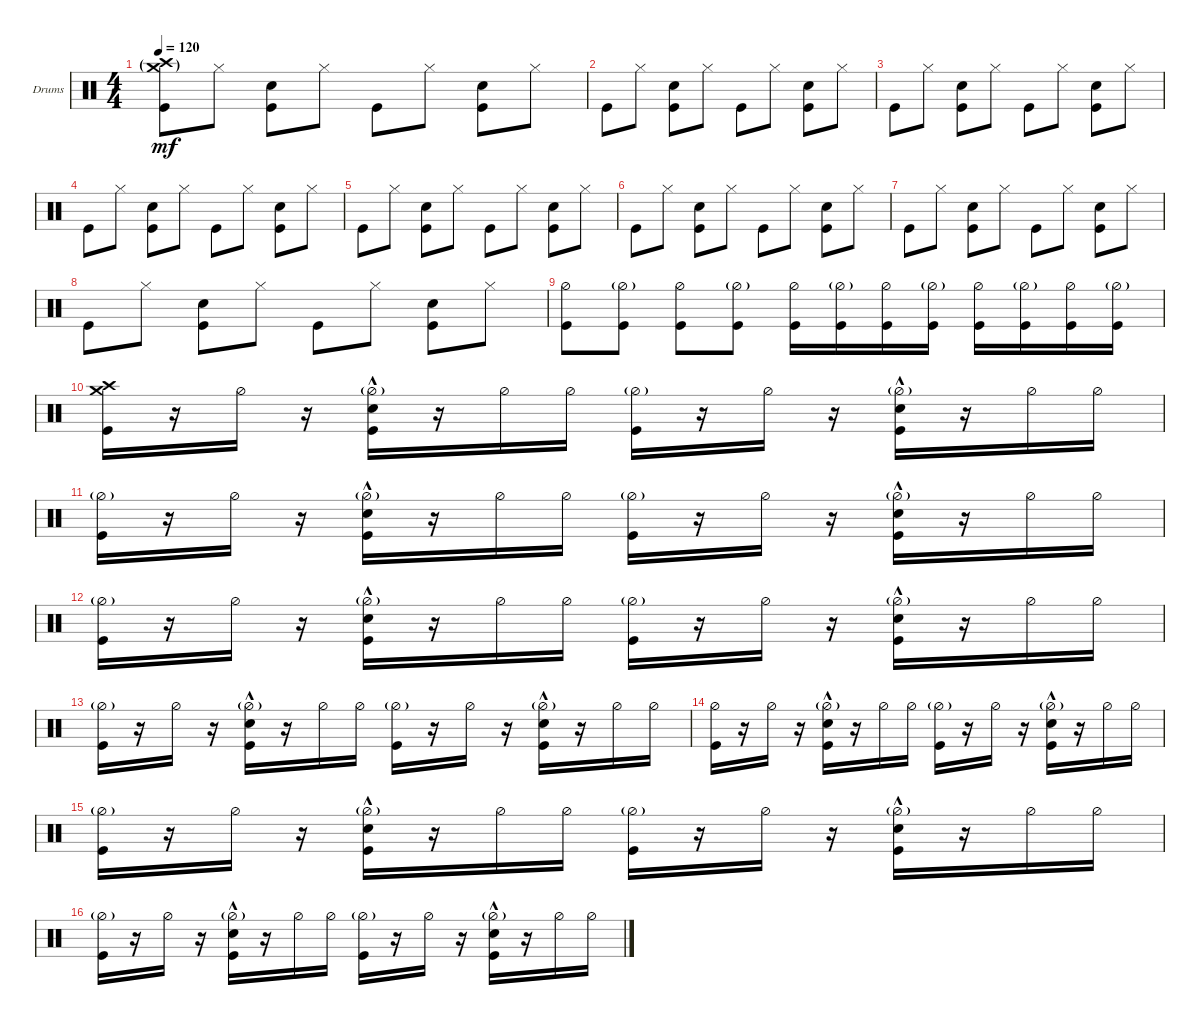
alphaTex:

\defaultSystemsLayout 4
\bracketExtendMode groupsimilarinstruments
\firstSystemTrackNameOrientation horizontal
\otherSystemsTrackNameOrientation horizontal
\track ("Drumkit" "Drums") {instrument percussion}
\staff {score}
\articulation defaults
\ts (4 4)
\tempo 120
\clef neutral
\ks c
("Kick (hit)" "Crash high (hit)"{g} "Crash medium (hit)"{g}).8{dy mf} "Hi-Hat (closed)".8 ("Kick (hit)" "Snare (hit) 2").8 "Hi-Hat (closed)".8 "Kick (hit)".8 "Hi-Hat (closed)".8 ("Kick (hit)" "Snare (hit) 2").8 "Hi-Hat (closed)".8 |
"Kick (hit)".8 "Hi-Hat (closed)".8 ("Kick (hit)" "Snare (hit) 2").8 "Hi-Hat (closed)".8 "Kick (hit)".8 "Hi-Hat (closed)".8 ("Kick (hit)" "Snare (hit) 2").8 "Hi-Hat (closed)".8 |
"Kick (hit)".8 "Hi-Hat (closed)".8 ("Kick (hit)" "Snare (hit) 2").8 "Hi-Hat (closed)".8 "Kick (hit)".8 "Hi-Hat (closed)".8 ("Kick (hit)" "Snare (hit) 2").8 "Hi-Hat (closed)".8 |
"Kick (hit)".8 "Hi-Hat (closed)".8 ("Kick (hit)" "Snare (hit) 2").8 "Hi-Hat (closed)".8 "Kick (hit)".8 "Hi-Hat (closed)".8 ("Kick (hit)" "Snare (hit) 2").8 "Hi-Hat (closed)".8 |
"Kick (hit)".8 "Hi-Hat (closed)".8 ("Kick (hit)" "Snare (hit) 2").8 "Hi-Hat (closed)".8 "Kick (hit)".8 "Hi-Hat (closed)".8 ("Kick (hit)" "Snare (hit) 2").8 "Hi-Hat (closed)".8 |
"Kick (hit)".8 "Hi-Hat (closed)".8 ("Kick (hit)" "Snare (hit) 2").8 "Hi-Hat (closed)".8 "Kick (hit)".8 "Hi-Hat (closed)".8 ("Kick (hit)" "Snare (hit) 2").8 "Hi-Hat (closed)".8 |
"Kick (hit)".8 "Hi-Hat (closed)".8 ("Kick (hit)" "Snare (hit) 2").8 "Hi-Hat (closed)".8 "Kick (hit)".8 "Hi-Hat (closed)".8 ("Kick (hit)" "Snare (hit) 2").8 "Hi-Hat (closed)".8 |
"Kick (hit)".8 "Hi-Hat (closed)".8 ("Kick (hit)" "Snare (hit) 2").8 "Hi-Hat (closed)".8 "Kick (hit)".8 "Hi-Hat (closed)".8 ("Kick (hit)" "Snare (hit) 2").8 "Hi-Hat (closed)".8 |
("Hi-Hat (half)" "Kick (hit)").8 ("Hi-Hat (half)"{g} "Kick (hit)").8 ("Hi-Hat (half)" "Kick (hit)").8 ("Hi-Hat (half)"{g} "Kick (hit)").8 ("Hi-Hat (half)" "Kick (hit)").16 ("Hi-Hat (half)"{g} "Kick (hit)").16 ("Hi-Hat (half)" "Kick (hit)").16 ("Hi-Hat (half)"{g} "Kick (hit)").16 ("Hi-Hat (half)" "Kick (hit)").16 ("Hi-Hat (half)"{g} "Kick (hit)").16 ("Hi-Hat (half)" "Kick (hit)").16 ("Hi-Hat (half)"{g} "Kick (hit)").16 |
("Crash medium (hit)" "Crash high (hit)" "Kick (hit)").16 r.16 "Hi-Hat (half)".16 r.16 ("Kick (hit)" "Snare (hit) 2"{hac} "Hi-Hat (half)"{g}).16 r.16 "Hi-Hat (half)".16 "Hi-Hat (half)".16 ("Kick (hit)" "Hi-Hat (half)"{g}).16 r.16 "Hi-Hat (half)".16 r.16 ("Kick (hit)" "Snare (hit) 2"{hac} "Hi-Hat (half)"{g}).16 r.16 "Hi-Hat (half)".16 "Hi-Hat (half)".16 |
("Kick (hit)" "Hi-Hat (half)"{g}).16 r.16 "Hi-Hat (half)".16 r.16 ("Kick (hit)" "Snare (hit) 2"{hac} "Hi-Hat (half)"{g}).16 r.16 "Hi-Hat (half)".16 "Hi-Hat (half)".16 ("Kick (hit)" "Hi-Hat (half)"{g}).16 r.16 "Hi-Hat (half)".16 r.16 ("Kick (hit)" "Snare (hit) 2"{hac} "Hi-Hat (half)"{g}).16 r.16 "Hi-Hat (half)".16 "Hi-Hat (half)".16 |
("Kick (hit)" "Hi-Hat (half)"{g}).16 r.16 "Hi-Hat (half)".16 r.16 ("Kick (hit)" "Snare (hit) 2"{hac} "Hi-Hat (half)"{g}).16 r.16 "Hi-Hat (half)".16 "Hi-Hat (half)".16 ("Kick (hit)" "Hi-Hat (half)"{g}).16 r.16 "Hi-Hat (half)".16 r.16 ("Kick (hit)" "Snare (hit) 2"{hac} "Hi-Hat (half)"{g}).16 r.16 "Hi-Hat (half)".16 "Hi-Hat (half)".16 |
("Kick (hit)" "Hi-Hat (half)"{g}).16 r.16 "Hi-Hat (half)".16 r.16 ("Kick (hit)" "Snare (hit) 2"{hac} "Hi-Hat (half)"{g}).16 r.16 "Hi-Hat (half)".16 "Hi-Hat (half)".16 ("Kick (hit)" "Hi-Hat (half)"{g}).16 r.16 "Hi-Hat (half)".16 r.16 ("Kick (hit)" "Snare (hit) 2"{hac} "Hi-Hat (half)"{g}).16 r.16 "Hi-Hat (half)".16 "Hi-Hat (half)".16 |
("Kick (hit)" "Hi-Hat (half)").16 r.16 "Hi-Hat (half)".16 r.16 ("Kick (hit)" "Snare (hit) 2"{hac} "Hi-Hat (half)"{g}).16 r.16 "Hi-Hat (half)".16 "Hi-Hat (half)".16 ("Kick (hit)" "Hi-Hat (half)"{g}).16 r.16 "Hi-Hat (half)".16 r.16 ("Kick (hit)" "Snare (hit) 2"{hac} "Hi-Hat (half)"{g}).16 r.16 "Hi-Hat (half)".16 "Hi-Hat (half)".16 |
("Kick (hit)" "Hi-Hat (half)"{g}).16 r.16 "Hi-Hat (half)".16 r.16 ("Kick (hit)" "Snare (hit) 2"{hac} "Hi-Hat (half)"{g}).16 r.16 "Hi-Hat (half)".16 "Hi-Hat (half)".16 ("Kick (hit)" "Hi-Hat (half)"{g}).16 r.16 "Hi-Hat (half)".16 r.16 ("Kick (hit)" "Snare (hit) 2"{hac} "Hi-Hat (half)"{g}).16 r.16 "Hi-Hat (half)".16 "Hi-Hat (half)".16 |
("Kick (hit)" "Hi-Hat (half)"{g}).16 r.16 "Hi-Hat (half)".16 r.16 ("Kick (hit)" "Snare (hit) 2"{hac} "Hi-Hat (half)"{g}).16 r.16 "Hi-Hat (half)".16 "Hi-Hat (half)".16 ("Kick (hit)" "Hi-Hat (half)"{g}).16 r.16 "Hi-Hat (half)".16 r.16 ("Kick (hit)" "Snare (hit) 2"{hac} "Hi-Hat (half)"{g}).16 r.16 "Hi-Hat (half)".16 "Hi-Hat (half)".16
